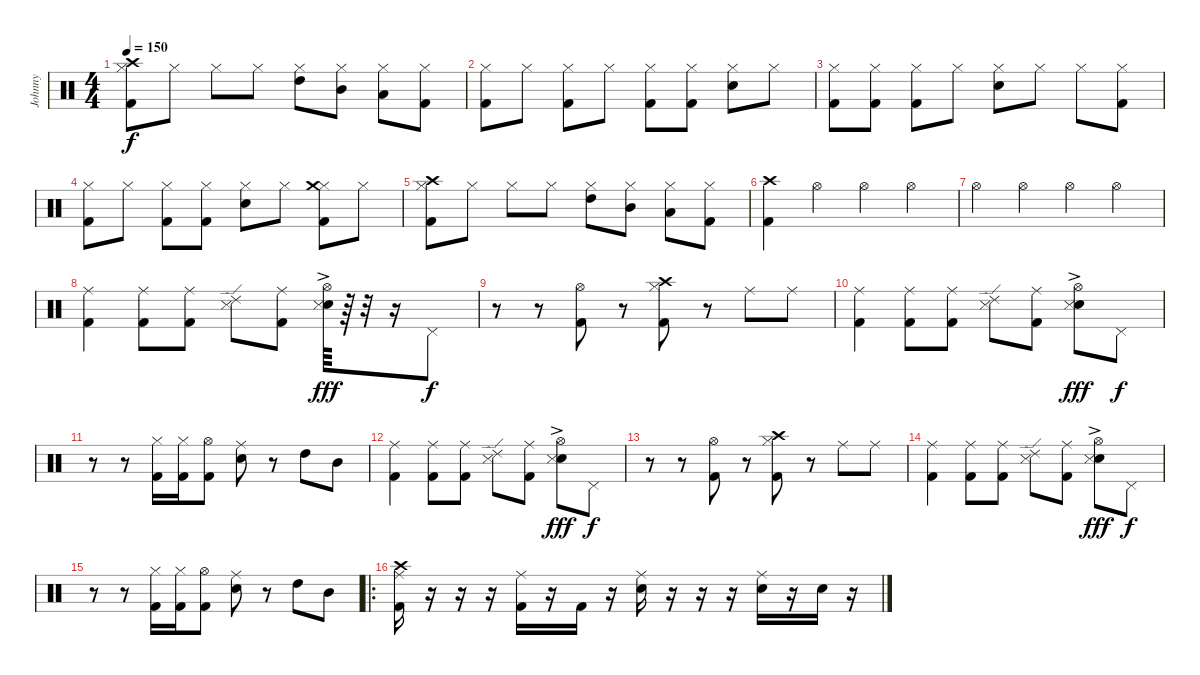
\track ("Johnny" "Johnny") {instrument percussion}
\staff {score}
\articulation defaults
\ts (4 4)
\tempo 150
\clef neutral
\ks c
("Hi-Hat (closed)" "Kick (hit) 2" "Crash high (hit)").8{dy f} "Hi-Hat (closed)".8 "Hi-Hat (closed)".8 "Hi-Hat (closed)".8 ("Hi-Hat (closed)" "High Tom (hit)").8 ("Hi-Hat (closed)" "Mid Tom (hit)").8 ("Hi-Hat (closed)" "Low Tom (hit)").8 ("Hi-Hat (closed)" "Kick (hit) 2").8 |
("Hi-Hat (closed)" "Kick (hit) 2").8{volume 11} "Hi-Hat (closed)".8 ("Hi-Hat (closed)" "Kick (hit) 2").8 "Hi-Hat (closed)".8 ("Hi-Hat (closed)" "Kick (hit) 2").8 ("Hi-Hat (closed)" "Kick (hit) 2").8 ("Hi-Hat (closed)" "Electric Snare (hit)").8 "Hi-Hat (closed)".8 |
("Hi-Hat (closed)" "Kick (hit) 2").8 ("Hi-Hat (closed)" "Kick (hit) 2").8 ("Hi-Hat (closed)" "Kick (hit) 2").8 "Hi-Hat (closed)".8 ("Hi-Hat (closed)" "Electric Snare (hit)").8 "Hi-Hat (closed)".8 "Hi-Hat (closed)".8 ("Hi-Hat (closed)" "Kick (hit) 2").8 |
("Hi-Hat (closed)" "Kick (hit) 2").8 "Hi-Hat (closed)".8 ("Hi-Hat (closed)" "Kick (hit) 2").8 ("Hi-Hat (closed)" "Kick (hit) 2").8 ("Hi-Hat (closed)" "Electric Snare (hit)").8 "Hi-Hat (closed)".8 ("Hi-Hat (closed)" "Kick (hit) 2" "Crash medium (hit)").8 "Hi-Hat (closed)".8 |
("Hi-Hat (closed)" "Kick (hit) 2" "Crash high (hit)").8 "Hi-Hat (closed)".8 "Hi-Hat (closed)".8 "Hi-Hat (closed)".8 ("Hi-Hat (closed)" "High Tom (hit)").8 ("Hi-Hat (closed)" "Mid Tom (hit)").8 ("Hi-Hat (closed)" "Low Tom (hit)").8 ("Hi-Hat (closed)" "Kick (hit) 2").8 |
("Crash high (hit)" "Kick (hit) 2").4 "Hi-Hat (open)".4 "Hi-Hat (open)".4 "Hi-Hat (open)".4 |
"Hi-Hat (open)".4 "Hi-Hat (open)".4 "Hi-Hat (open)".4 "Hi-Hat (open)".4 |
("Ride (middle)" "Kick (hit) 2").4 ("Ride (middle)" "Kick (hit) 2").8 ("Ride (middle)" "Kick (hit) 2").8 ("Ride (edge) 2" "Snare (side stick) 3").8 ("Ride (middle)" "Kick (hit) 2").8 ("Snare (hit)"{x} "Hi-Hat (open)"{ac} "Snare (side stick) 3").64{dy fff} r.64 r.32 r.16 "Pedal Hi-Hat (hit)".8{dy f} |
r.8 r.8 ("Hi-Hat (open)" "Kick (hit) 2").8 r.8 ("Hi-Hat (closed)" "Kick (hit) 2" "Crash high (hit)").8 r.8 "Ride (middle)".8 "Ride (middle)".8 |
("Ride (middle)" "Kick (hit) 2").4 ("Ride (middle)" "Kick (hit) 2").8 ("Ride (middle)" "Kick (hit) 2").8 ("Ride (edge) 2" "Snare (side stick) 3").8 ("Ride (middle)" "Kick (hit) 2").8 ("Snare (hit)"{x} "Hi-Hat (open)"{ac} "Snare (side stick) 3").8{dy fff} "Pedal Hi-Hat (hit)".8{dy f} |
r.8 r.8 ("Hi-Hat (closed)" "Kick (hit) 2").16 ("Hi-Hat (closed)" "Kick (hit) 2").16 ("Hi-Hat (open)" "Kick (hit) 2").8 ("Ride (middle)" "Snare (hit) 2").8 r.8 "High Tom (hit)".8 "Mid Tom (hit)".8 |
("Ride (middle)" "Kick (hit) 2").4 ("Ride (middle)" "Kick (hit) 2").8 ("Ride (middle)" "Kick (hit) 2").8 ("Ride (edge) 2" "Snare (side stick) 3").8 ("Ride (middle)" "Kick (hit) 2").8 ("Snare (hit)"{x} "Hi-Hat (open)"{ac} "Snare (side stick) 3").8{dy fff} "Pedal Hi-Hat (hit)".8{dy f} |
r.8 r.8 ("Hi-Hat (open)" "Kick (hit) 2").8 r.8 ("Hi-Hat (closed)" "Kick (hit) 2" "Crash high (hit)").8 r.8 "Ride (middle)".8 "Ride (middle)".8 |
("Ride (middle)" "Kick (hit) 2").4 ("Ride (middle)" "Kick (hit) 2").8 ("Ride (middle)" "Kick (hit) 2").8 ("Ride (edge) 2" "Snare (side stick) 3").8 ("Ride (middle)" "Kick (hit) 2").8 ("Snare (hit)"{x} "Hi-Hat (open)"{ac} "Snare (side stick) 3").8{dy fff} "Pedal Hi-Hat (hit)".8{dy f} |
r.8 r.8 ("Hi-Hat (closed)" "Kick (hit) 2").16 ("Hi-Hat (closed)" "Kick (hit) 2").16 ("Hi-Hat (open)" "Kick (hit) 2").8 ("Ride (middle)" "Snare (hit) 2").8 r.8 "High Tom (hit)".8 "Mid Tom (hit)".8 |
\ro
("Ride (middle)" "Kick (hit) 2" "Crash high (hit)").16 r.16 r.16 r.16 ("Ride (middle)" "Kick (hit) 2").16 r.16 "Kick (hit) 2".16 r.16 ("Ride (middle)" "Snare (hit) 2").16 r.16 r.16 r.16 ("Ride (middle)" "Snare (hit) 2").16 r.16 "Snare (hit) 2".16 r.16
